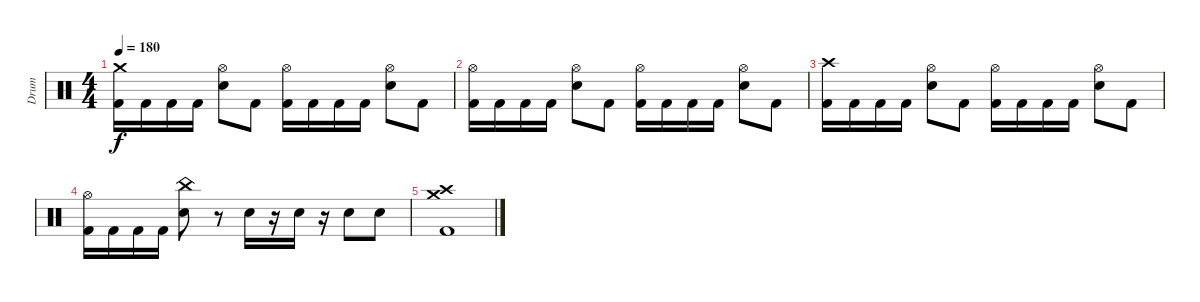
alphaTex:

\track ("Drum" "Drum") {instrument percussion}
\staff {score}
\articulation defaults
\ts (4 4)
\tempo 180
\clef neutral
\ks c
("Crash medium (hit)" "Kick (hit) 2").16{dy f} "Kick (hit) 2".16 "Kick (hit) 2".16 "Kick (hit) 2".16 ("Hi-Hat (open)" "Snare (hit) 2").8 "Kick (hit) 2".8 ("Hi-Hat (open)" "Kick (hit) 2").16 "Kick (hit) 2".16 "Kick (hit) 2".16 "Kick (hit) 2".16 ("Hi-Hat (open)" "Snare (hit) 2").8 "Kick (hit) 2".8 |
("Hi-Hat (open)" "Kick (hit) 2").16 "Kick (hit) 2".16 "Kick (hit) 2".16 "Kick (hit) 2".16 ("Hi-Hat (open)" "Snare (hit) 2").8 "Kick (hit) 2".8 ("Hi-Hat (open)" "Kick (hit) 2").16 "Kick (hit) 2".16 "Kick (hit) 2".16 "Kick (hit) 2".16 ("Hi-Hat (open)" "Snare (hit) 2").8 "Kick (hit) 2".8 |
("Crash high (hit)" "Kick (hit) 2").16 "Kick (hit) 2".16 "Kick (hit) 2".16 "Kick (hit) 2".16 ("Hi-Hat (open)" "Snare (hit) 2").8 "Kick (hit) 2".8 ("Hi-Hat (open)" "Kick (hit) 2").16 "Kick (hit) 2".16 "Kick (hit) 2".16 "Kick (hit) 2".16 ("Hi-Hat (open)" "Snare (hit) 2").8 "Kick (hit) 2".8 |
("Hi-Hat (open)" "Kick (hit) 2").16 "Kick (hit) 2".16 "Kick (hit) 2".16 "Kick (hit) 2".16 ("China (hit)" "Snare (hit) 2").8 r.8 "Snare (hit) 2".16 r.16 "Snare (hit) 2".16 r.16 "Snare (hit) 2".8 "Snare (hit) 2".8 |
("Crash high (hit)" "Crash medium (hit)" "Kick (hit) 2").1
